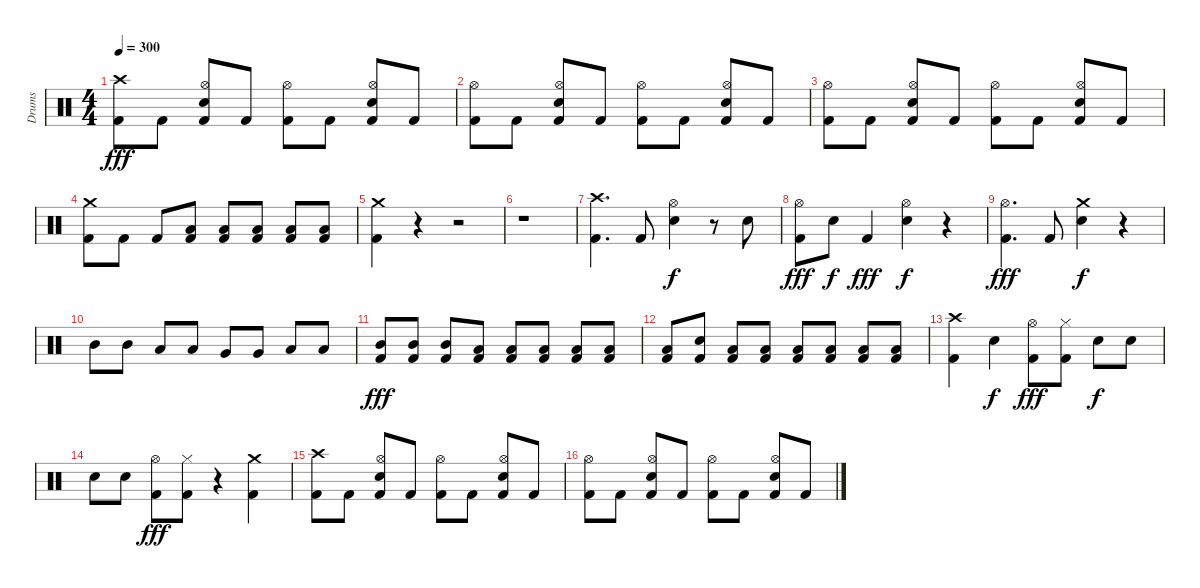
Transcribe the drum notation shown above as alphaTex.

\track ("Drums" "Drums") {instrument percussion}
\staff {score}
\articulation defaults
\ts (4 4)
\tempo 300
\clef neutral
\ks c
("Crash high (hit)" "Kick (hit) 2").8{dy fff} "Kick (hit) 2".8 ("Hi-Hat (open)" "Snare (hit) 2" "Kick (hit) 2").8 "Kick (hit) 2".8 ("Hi-Hat (open)" "Kick (hit) 2").8 "Kick (hit) 2".8 ("Hi-Hat (open)" "Snare (hit) 2" "Kick (hit) 2").8 "Kick (hit) 2".8 |
("Hi-Hat (open)" "Kick (hit) 2").8 "Kick (hit) 2".8 ("Hi-Hat (open)" "Snare (hit) 2" "Kick (hit) 2").8 "Kick (hit) 2".8 ("Hi-Hat (open)" "Kick (hit) 2").8 "Kick (hit) 2".8 ("Hi-Hat (open)" "Snare (hit) 2" "Kick (hit) 2").8 "Kick (hit) 2".8 |
("Hi-Hat (open)" "Kick (hit) 2").8 "Kick (hit) 2".8 ("Hi-Hat (open)" "Snare (hit) 2" "Kick (hit) 2").8 "Kick (hit) 2".8 ("Hi-Hat (open)" "Kick (hit) 2").8 "Kick (hit) 2".8 ("Hi-Hat (open)" "Snare (hit) 2" "Kick (hit) 2").8 "Kick (hit) 2".8 |
("Crash medium (hit)" "Kick (hit) 2").8 "Kick (hit) 2".8 "Kick (hit) 2".8 ("Low Floor Tom (hit)" "Kick (hit) 2").8 ("Low Floor Tom (hit)" "Kick (hit) 2").8 ("Low Floor Tom (hit)" "Kick (hit) 2").8 ("Low Floor Tom (hit)" "Kick (hit) 2").8 ("Low Floor Tom (hit)" "Kick (hit) 2").8 |
("Crash medium (hit)" "Kick (hit) 2").4 r.4 r.2 |
r.1 |
("Crash high (hit)" "Kick (hit) 2").4{d} "Kick (hit) 2".8 ("Hi-Hat (open)" "Snare (hit) 2").4{dy f} r.8 "Snare (hit) 2".8 |
("Hi-Hat (open)" "Kick (hit) 2").8{dy fff} "Snare (hit) 2".8{dy f} "Kick (hit) 2".4{dy fff} ("Hi-Hat (open)" "Snare (hit) 2").4{dy f} r.4 |
("Hi-Hat (open)" "Kick (hit) 2").4{d dy fff} "Kick (hit) 2".8 ("Crash medium (hit)" "Snare (hit) 2").4{dy f} r.4 |
"Mid Tom (hit)".8 "Mid Tom (hit)".8 "Low Tom (hit)".8 "Low Tom (hit)".8 "Very Low Tom (hit)".8 "Very Low Tom (hit)".8 "Low Floor Tom (hit)".8 "Low Floor Tom (hit)".8 |
("Mid Tom (hit)" "Kick (hit) 2").8{dy fff} ("Mid Tom (hit)" "Kick (hit) 2").8 ("Mid Tom (hit)" "Kick (hit) 2").8 ("Low Tom (hit)" "Kick (hit) 2").8 ("Low Tom (hit)" "Kick (hit) 2").8 ("Low Tom (hit)" "Kick (hit) 2").8 ("Low Floor Tom (hit)" "Kick (hit) 2").8 ("Low Floor Tom (hit)" "Kick (hit) 2").8 |
("Low Floor Tom (hit)" "Kick (hit) 2").8 ("Snare (hit) 2" "Kick (hit) 2").8 ("Low Floor Tom (hit)" "Kick (hit) 2").8 ("Low Floor Tom (hit)" "Kick (hit) 2").8 ("Low Floor Tom (hit)" "Kick (hit) 2").8 ("Low Floor Tom (hit)" "Kick (hit) 2").8 ("Low Floor Tom (hit)" "Kick (hit) 2").8 ("Low Floor Tom (hit)" "Kick (hit) 2").8 |
("Crash high (hit)" "Kick (hit) 2").4 "Snare (hit) 2".4{dy f} ("Hi-Hat (open)" "Kick (hit) 2").8{dy fff} ("Hi-Hat (closed)" "Kick (hit) 2").8 "Snare (hit) 2".8{dy f} "Snare (hit) 2".8 |
"Snare (hit) 2".8 "Snare (hit) 2".8 ("Hi-Hat (open)" "Kick (hit) 2").8{dy fff} ("Hi-Hat (closed)" "Kick (hit) 2").8 r.4 ("Crash medium (hit)" "Kick (hit) 2").4 |
("Crash high (hit)" "Kick (hit) 2").8 "Kick (hit) 2".8 ("Hi-Hat (open)" "Snare (hit) 2" "Kick (hit) 2").8 "Kick (hit) 2".8 ("Hi-Hat (open)" "Kick (hit) 2").8 "Kick (hit) 2".8 ("Hi-Hat (open)" "Snare (hit) 2" "Kick (hit) 2").8 "Kick (hit) 2".8 |
("Hi-Hat (open)" "Kick (hit) 2").8 "Kick (hit) 2".8 ("Hi-Hat (open)" "Snare (hit) 2" "Kick (hit) 2").8 "Kick (hit) 2".8 ("Hi-Hat (open)" "Kick (hit) 2").8 "Kick (hit) 2".8 ("Hi-Hat (open)" "Snare (hit) 2" "Kick (hit) 2").8 "Kick (hit) 2".8
